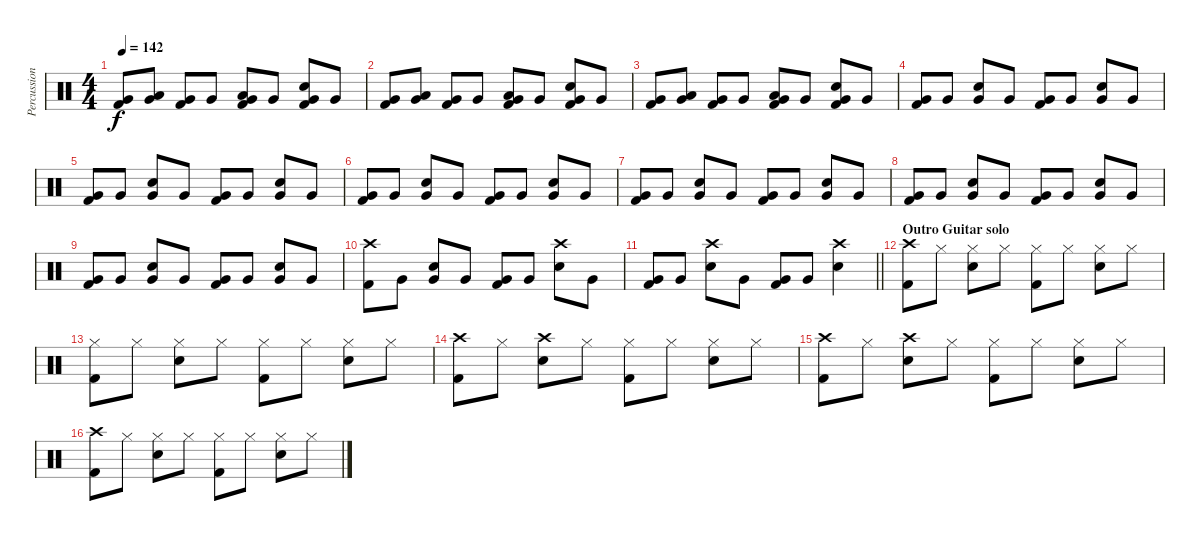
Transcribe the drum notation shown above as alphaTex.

\track ("Percussion" "Percussion") {instrument percussion}
\staff {score}
\articulation defaults
\ts (4 4)
\tempo 142
\clef neutral
\ks c
("Very Low Tom (hit)" "Kick (hit) 2").8{dy f} ("Low Tom (hit)" "Very Low Tom (hit)").8 ("Very Low Tom (hit)" "Kick (hit) 2").8 "Very Low Tom (hit)".8 ("Low Tom (hit)" "Very Low Tom (hit)" "Kick (hit) 2").8 "Very Low Tom (hit)".8 ("Very Low Tom (hit)" "Electric Snare (hit)" "Kick (hit) 2").8 "Very Low Tom (hit)".8 |
("Very Low Tom (hit)" "Kick (hit) 2").8 ("Low Tom (hit)" "Very Low Tom (hit)").8 ("Very Low Tom (hit)" "Kick (hit) 2").8 "Very Low Tom (hit)".8 ("Low Tom (hit)" "Very Low Tom (hit)" "Kick (hit) 2").8 "Very Low Tom (hit)".8 ("Very Low Tom (hit)" "Electric Snare (hit)" "Kick (hit) 2").8 "Very Low Tom (hit)".8 |
("Very Low Tom (hit)" "Kick (hit) 2").8 ("Low Tom (hit)" "Very Low Tom (hit)").8 ("Very Low Tom (hit)" "Kick (hit) 2").8 "Very Low Tom (hit)".8 ("Low Tom (hit)" "Very Low Tom (hit)" "Kick (hit) 2").8 "Very Low Tom (hit)".8 ("Very Low Tom (hit)" "Electric Snare (hit)" "Kick (hit) 2").8 "Very Low Tom (hit)".8 |
("Very Low Tom (hit)" "Kick (hit) 2").8 "Very Low Tom (hit)".8 ("Very Low Tom (hit)" "Electric Snare (hit)").8 "Very Low Tom (hit)".8 ("Very Low Tom (hit)" "Kick (hit) 2").8 "Very Low Tom (hit)".8 ("Very Low Tom (hit)" "Electric Snare (hit)").8 "Very Low Tom (hit)".8 |
("Very Low Tom (hit)" "Kick (hit) 2").8 "Very Low Tom (hit)".8 ("Very Low Tom (hit)" "Electric Snare (hit)").8 "Very Low Tom (hit)".8 ("Very Low Tom (hit)" "Kick (hit) 2").8 "Very Low Tom (hit)".8 ("Very Low Tom (hit)" "Electric Snare (hit)").8 "Very Low Tom (hit)".8 |
("Very Low Tom (hit)" "Kick (hit) 2").8 "Very Low Tom (hit)".8 ("Very Low Tom (hit)" "Electric Snare (hit)").8 "Very Low Tom (hit)".8 ("Very Low Tom (hit)" "Kick (hit) 2").8 "Very Low Tom (hit)".8 ("Very Low Tom (hit)" "Electric Snare (hit)").8 "Very Low Tom (hit)".8 |
("Very Low Tom (hit)" "Kick (hit) 2").8 "Very Low Tom (hit)".8 ("Very Low Tom (hit)" "Electric Snare (hit)").8 "Very Low Tom (hit)".8 ("Very Low Tom (hit)" "Kick (hit) 2").8 "Very Low Tom (hit)".8 ("Very Low Tom (hit)" "Electric Snare (hit)").8 "Very Low Tom (hit)".8 |
("Very Low Tom (hit)" "Kick (hit) 2").8 "Very Low Tom (hit)".8 ("Very Low Tom (hit)" "Electric Snare (hit)").8 "Very Low Tom (hit)".8 ("Very Low Tom (hit)" "Kick (hit) 2").8 "Very Low Tom (hit)".8 ("Very Low Tom (hit)" "Electric Snare (hit)").8 "Very Low Tom (hit)".8 |
("Very Low Tom (hit)" "Kick (hit) 2").8 "Very Low Tom (hit)".8 ("Very Low Tom (hit)" "Electric Snare (hit)").8 "Very Low Tom (hit)".8 ("Very Low Tom (hit)" "Kick (hit) 2").8 "Very Low Tom (hit)".8 ("Very Low Tom (hit)" "Electric Snare (hit)").8 "Very Low Tom (hit)".8 |
("Crash high (hit)" "Kick (hit) 2").8 "Very Low Tom (hit)".8 ("Very Low Tom (hit)" "Electric Snare (hit)").8 "Very Low Tom (hit)".8 ("Very Low Tom (hit)" "Kick (hit) 2").8 "Very Low Tom (hit)".8 ("Crash high (hit)" "Electric Snare (hit)").8 "Very Low Tom (hit)".8 |
\barLineRight lightlight
("Very Low Tom (hit)" "Kick (hit) 2").8 "Very Low Tom (hit)".8 ("Crash high (hit)" "Electric Snare (hit)").8 "Very Low Tom (hit)".8 ("Very Low Tom (hit)" "Kick (hit) 2").8 "Very Low Tom (hit)".8 ("Crash high (hit)" "Electric Snare (hit)").4 |
\section ("" "Outro Guitar solo")
("Crash high (hit)" "Kick (hit) 2").8 "Hi-Hat (closed)".8 ("Hi-Hat (closed)" "Electric Snare (hit)").8 "Hi-Hat (closed)".8 ("Hi-Hat (closed)" "Kick (hit) 2").8 "Hi-Hat (closed)".8 ("Hi-Hat (closed)" "Electric Snare (hit)").8 "Hi-Hat (closed)".8 |
("Hi-Hat (closed)" "Kick (hit) 2").8 "Hi-Hat (closed)".8 ("Hi-Hat (closed)" "Electric Snare (hit)").8 "Hi-Hat (closed)".8 ("Hi-Hat (closed)" "Kick (hit) 2").8 "Hi-Hat (closed)".8 ("Hi-Hat (closed)" "Electric Snare (hit)").8 "Hi-Hat (closed)".8 |
("Crash high (hit)" "Kick (hit) 2").8 "Hi-Hat (closed)".8 ("Crash high (hit)" "Electric Snare (hit)").8 "Hi-Hat (closed)".8 ("Hi-Hat (closed)" "Kick (hit) 2").8 "Hi-Hat (closed)".8 ("Hi-Hat (closed)" "Electric Snare (hit)").8 "Hi-Hat (closed)".8 |
("Crash high (hit)" "Kick (hit) 2").8 "Hi-Hat (closed)".8 ("Crash high (hit)" "Electric Snare (hit)").8 "Hi-Hat (closed)".8 ("Hi-Hat (closed)" "Kick (hit) 2").8 "Hi-Hat (closed)".8 ("Hi-Hat (closed)" "Electric Snare (hit)").8 "Hi-Hat (closed)".8 |
("Crash high (hit)" "Kick (hit) 2").8 "Hi-Hat (closed)".8 ("Hi-Hat (closed)" "Electric Snare (hit)").8 "Hi-Hat (closed)".8 ("Hi-Hat (closed)" "Kick (hit) 2").8 "Hi-Hat (closed)".8 ("Hi-Hat (closed)" "Electric Snare (hit)").8 "Hi-Hat (closed)".8
